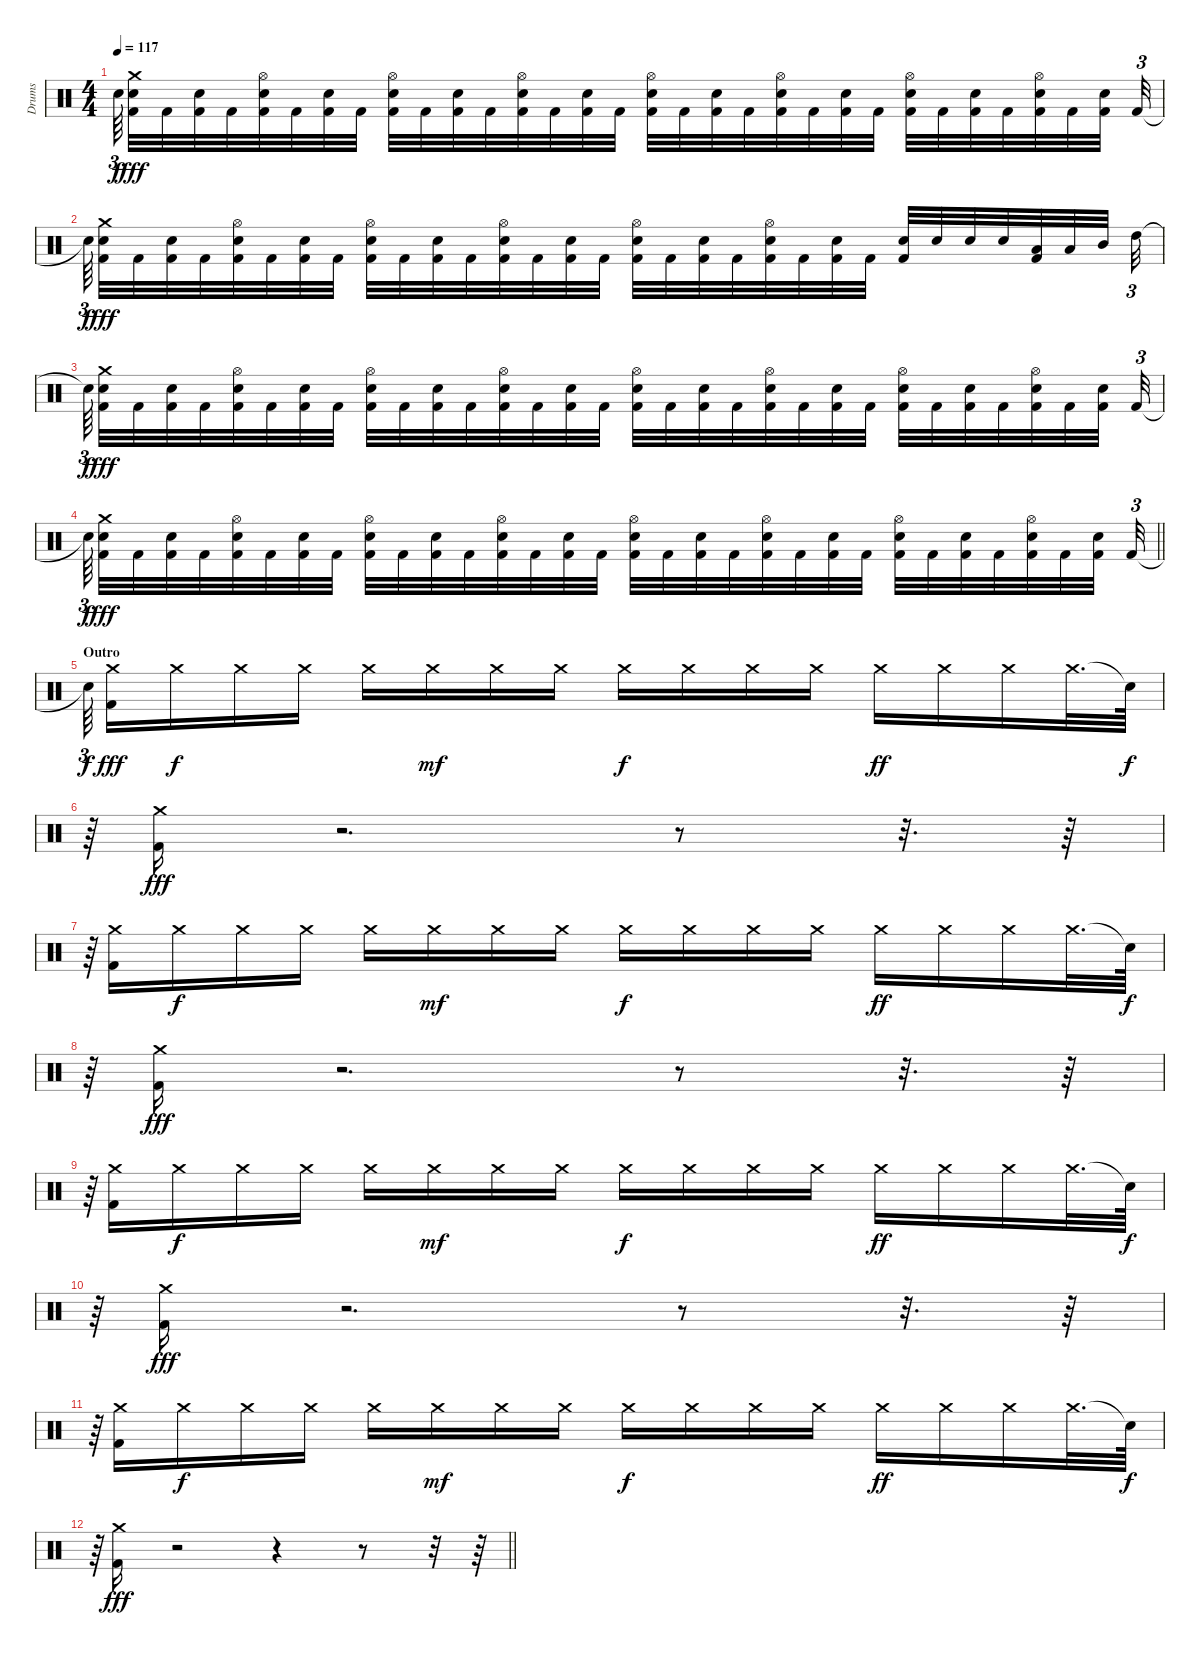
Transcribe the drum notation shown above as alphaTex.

\track ("Drums" "Drums") {instrument percussion}
\staff {score}
\articulation defaults
\ts (4 4)
\tempo 117
\clef neutral
\ks c "Snare (hit)"{t}.64{tu (3 2) dy f beam splitsecondary}
("Kick (hit) 2" "Snare (hit) 2" "Crash medium (hit)").32{dy fff} "Kick (hit) 2".32 ("Kick (hit) 2" "Snare (hit) 2").32 "Kick (hit) 2".32 ("Kick (hit) 2" "Snare (hit) 2" "Hi-Hat (open)").32 "Kick (hit) 2".32 ("Kick (hit) 2" "Snare (hit) 2").32 "Kick (hit) 2".32 ("Kick (hit) 2" "Snare (hit) 2" "Hi-Hat (open)").32 "Kick (hit) 2".32 ("Kick (hit) 2" "Snare (hit) 2").32 "Kick (hit) 2".32 ("Kick (hit) 2" "Snare (hit) 2" "Hi-Hat (open)").32 "Kick (hit) 2".32 ("Kick (hit) 2" "Snare (hit) 2").32 "Kick (hit) 2".32 ("Kick (hit) 2" "Snare (hit) 2" "Hi-Hat (open)").32 "Kick (hit) 2".32 ("Kick (hit) 2" "Snare (hit) 2").32 "Kick (hit) 2".32 ("Kick (hit) 2" "Snare (hit) 2" "Hi-Hat (open)").32 "Kick (hit) 2".32 ("Kick (hit) 2" "Snare (hit) 2").32 "Kick (hit) 2".32 ("Kick (hit) 2" "Snare (hit) 2" "Hi-Hat (open)").32 "Kick (hit) 2".32 ("Kick (hit) 2" "Snare (hit) 2").32 "Kick (hit) 2".32 ("Kick (hit) 2" "Snare (hit) 2" "Hi-Hat (open)").32 "Kick (hit) 2".32 ("Kick (hit) 2" "Snare (hit) 2").32{beam splitsecondary} "Kick (hit) 2".32{tu (3 2)} |
"Snare (hit)"{t}.64{tu (3 2) dy f beam splitsecondary} ("Kick (hit) 2" "Snare (hit) 2" "Crash medium (hit)").32{dy fff} "Kick (hit) 2".32 ("Kick (hit) 2" "Snare (hit) 2").32 "Kick (hit) 2".32 ("Kick (hit) 2" "Snare (hit) 2" "Hi-Hat (open)").32 "Kick (hit) 2".32 ("Kick (hit) 2" "Snare (hit) 2").32 "Kick (hit) 2".32 ("Kick (hit) 2" "Snare (hit) 2" "Hi-Hat (open)").32 "Kick (hit) 2".32 ("Kick (hit) 2" "Snare (hit) 2").32 "Kick (hit) 2".32 ("Kick (hit) 2" "Snare (hit) 2" "Hi-Hat (open)").32 "Kick (hit) 2".32 ("Kick (hit) 2" "Snare (hit) 2").32 "Kick (hit) 2".32 ("Kick (hit) 2" "Snare (hit) 2" "Hi-Hat (open)").32 "Kick (hit) 2".32 ("Kick (hit) 2" "Snare (hit) 2").32 "Kick (hit) 2".32 ("Kick (hit) 2" "Snare (hit) 2" "Hi-Hat (open)").32 "Kick (hit) 2".32 ("Kick (hit) 2" "Snare (hit) 2").32 "Kick (hit) 2".32 ("Kick (hit) 2" "Snare (hit) 2").32 "Snare (hit) 2".32 "Snare (hit) 2".32 "Snare (hit) 2".32 ("Kick (hit) 2" "Low Tom (hit)").32 "Low Tom (hit)".32 "Mid Tom (hit)".32{beam splitsecondary} "High Tom (hit)".32{tu (3 2)} |
"Snare (hit)"{t}.64{tu (3 2) dy f beam splitsecondary} ("Kick (hit) 2" "Snare (hit) 2" "Crash medium (hit)").32{dy fff} "Kick (hit) 2".32 ("Kick (hit) 2" "Snare (hit) 2").32 "Kick (hit) 2".32 ("Kick (hit) 2" "Snare (hit) 2" "Hi-Hat (open)").32 "Kick (hit) 2".32 ("Kick (hit) 2" "Snare (hit) 2").32 "Kick (hit) 2".32 ("Kick (hit) 2" "Snare (hit) 2" "Hi-Hat (open)").32 "Kick (hit) 2".32 ("Kick (hit) 2" "Snare (hit) 2").32 "Kick (hit) 2".32 ("Kick (hit) 2" "Snare (hit) 2" "Hi-Hat (open)").32 "Kick (hit) 2".32 ("Kick (hit) 2" "Snare (hit) 2").32 "Kick (hit) 2".32 ("Kick (hit) 2" "Snare (hit) 2" "Hi-Hat (open)").32 "Kick (hit) 2".32 ("Kick (hit) 2" "Snare (hit) 2").32 "Kick (hit) 2".32 ("Kick (hit) 2" "Snare (hit) 2" "Hi-Hat (open)").32 "Kick (hit) 2".32 ("Kick (hit) 2" "Snare (hit) 2").32 "Kick (hit) 2".32 ("Kick (hit) 2" "Snare (hit) 2" "Hi-Hat (open)").32 "Kick (hit) 2".32 ("Kick (hit) 2" "Snare (hit) 2").32 "Kick (hit) 2".32 ("Kick (hit) 2" "Snare (hit) 2" "Hi-Hat (open)").32 "Kick (hit) 2".32 ("Kick (hit) 2" "Snare (hit) 2").32{beam splitsecondary} "Kick (hit) 2".32{tu (3 2)} |
\barLineRight lightlight "Snare (hit)"{t}.64{tu (3 2) dy f beam splitsecondary}
("Kick (hit) 2" "Snare (hit) 2" "Crash medium (hit)").32{dy fff} "Kick (hit) 2".32 ("Kick (hit) 2" "Snare (hit) 2").32 "Kick (hit) 2".32 ("Kick (hit) 2" "Snare (hit) 2" "Hi-Hat (open)").32 "Kick (hit) 2".32 ("Kick (hit) 2" "Snare (hit) 2").32 "Kick (hit) 2".32 ("Kick (hit) 2" "Snare (hit) 2" "Hi-Hat (open)").32 "Kick (hit) 2".32 ("Kick (hit) 2" "Snare (hit) 2").32 "Kick (hit) 2".32 ("Kick (hit) 2" "Snare (hit) 2" "Hi-Hat (open)").32 "Kick (hit) 2".32 ("Kick (hit) 2" "Snare (hit) 2").32 "Kick (hit) 2".32 ("Kick (hit) 2" "Snare (hit) 2" "Hi-Hat (open)").32 "Kick (hit) 2".32 ("Kick (hit) 2" "Snare (hit) 2").32 "Kick (hit) 2".32 ("Kick (hit) 2" "Snare (hit) 2" "Hi-Hat (open)").32 "Kick (hit) 2".32 ("Kick (hit) 2" "Snare (hit) 2").32 "Kick (hit) 2".32 ("Kick (hit) 2" "Snare (hit) 2" "Hi-Hat (open)").32 "Kick (hit) 2".32 ("Kick (hit) 2" "Snare (hit) 2").32 "Kick (hit) 2".32 ("Kick (hit) 2" "Snare (hit) 2" "Hi-Hat (open)").32 "Kick (hit) 2".32 ("Kick (hit) 2" "Snare (hit) 2").32{beam splitsecondary} "Kick (hit) 2".32{tu (3 2)} |
\section ("" "Outro")
"Snare (hit)"{t}.64{tu (3 2) dy f beam splitsecondary} ("Kick (hit) 2" "Crash medium (hit)").16{dy fff} "Crash medium (hit)".16{dy f} "Crash medium (hit)".16 "Crash medium (hit)".16 "Crash medium (hit)".16 "Crash medium (hit)".16{dy mf} "Crash medium (hit)".16 "Crash medium (hit)".16 "Crash medium (hit)".16{dy f} "Crash medium (hit)".16 "Crash medium (hit)".16 "Crash medium (hit)".16 "Crash medium (hit)".16{dy ff} "Crash medium (hit)".16 "Crash medium (hit)".16 "Crash medium (hit)".32{d} "Snare (hit)"{t}.64{dy f} |
r.64{tu (3 2)} ("Kick (hit) 2" "Crash medium (hit)").16{dy fff} r.2{d} r.8 r.32{d} r.64 |
r.64{tu (3 2)} ("Kick (hit) 2" "Crash medium (hit)").16 "Crash medium (hit)".16{dy f} "Crash medium (hit)".16 "Crash medium (hit)".16 "Crash medium (hit)".16 "Crash medium (hit)".16{dy mf} "Crash medium (hit)".16 "Crash medium (hit)".16 "Crash medium (hit)".16{dy f} "Crash medium (hit)".16 "Crash medium (hit)".16 "Crash medium (hit)".16 "Crash medium (hit)".16{dy ff} "Crash medium (hit)".16 "Crash medium (hit)".16 "Crash medium (hit)".32{d} "Snare (hit)"{t}.64{dy f} |
r.64{tu (3 2)} ("Kick (hit) 2" "Crash medium (hit)").16{dy fff} r.2{d} r.8 r.32{d} r.64 |
r.64{tu (3 2)} ("Kick (hit) 2" "Crash medium (hit)").16 "Crash medium (hit)".16{dy f} "Crash medium (hit)".16 "Crash medium (hit)".16 "Crash medium (hit)".16 "Crash medium (hit)".16{dy mf} "Crash medium (hit)".16 "Crash medium (hit)".16 "Crash medium (hit)".16{dy f} "Crash medium (hit)".16 "Crash medium (hit)".16 "Crash medium (hit)".16 "Crash medium (hit)".16{dy ff} "Crash medium (hit)".16 "Crash medium (hit)".16 "Crash medium (hit)".32{d} "Snare (hit)"{t}.64{dy f} |
r.64{tu (3 2)} ("Kick (hit) 2" "Crash medium (hit)").16{dy fff} r.2{d} r.8 r.32{d} r.64 |
r.64{tu (3 2)} ("Kick (hit) 2" "Crash medium (hit)").16 "Crash medium (hit)".16{dy f} "Crash medium (hit)".16 "Crash medium (hit)".16 "Crash medium (hit)".16 "Crash medium (hit)".16{dy mf} "Crash medium (hit)".16 "Crash medium (hit)".16 "Crash medium (hit)".16{dy f} "Crash medium (hit)".16 "Crash medium (hit)".16 "Crash medium (hit)".16 "Crash medium (hit)".16{dy ff} "Crash medium (hit)".16 "Crash medium (hit)".16 "Crash medium (hit)".32{d} "Snare (hit)"{t}.64{dy f} |
\barLineRight lightlight
r.64{tu (3 2)} ("Kick (hit) 2" "Crash medium (hit)").16{dy fff} r.2 r.4 r.8 r.32 r.64
